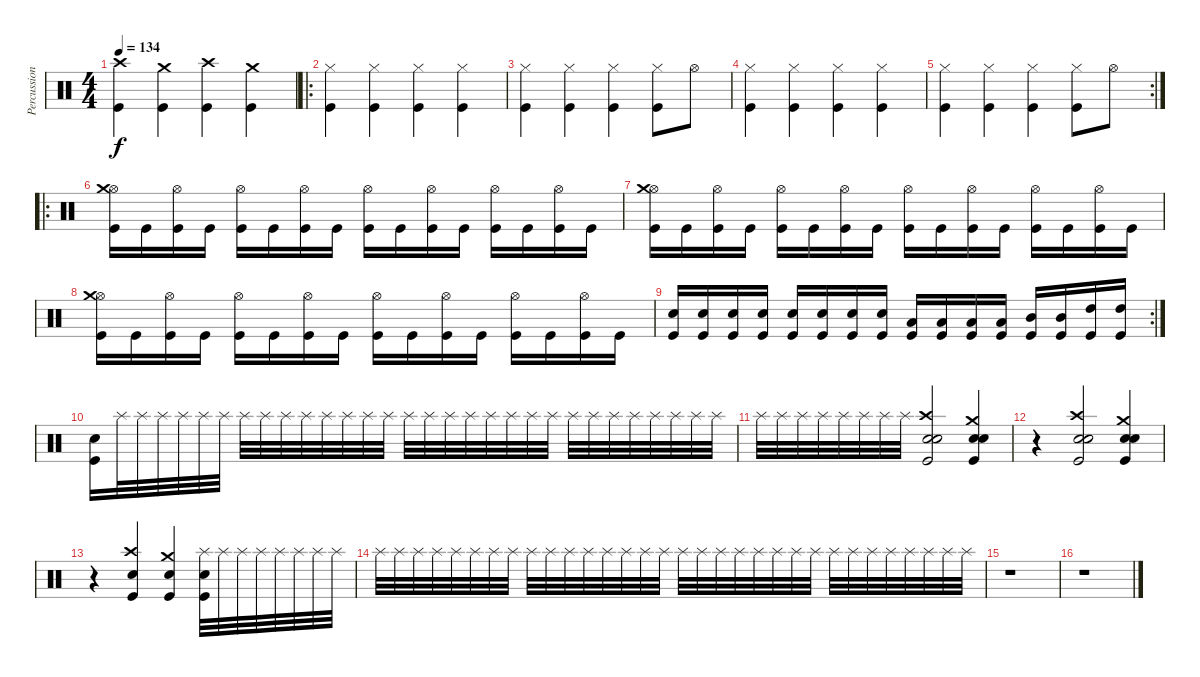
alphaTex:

\track ("Percussion" "Percussion") {instrument percussion}
\staff {score}
\articulation defaults
\ts (4 4)
\tempo 134
\clef neutral
\ks c
("Kick (hit)" "Crash high (hit)").4{dy f} ("Kick (hit)" "Crash medium (hit)").4 ("Kick (hit)" "Crash high (hit)").4 ("Kick (hit)" "Crash medium (hit)").4 |
\ro
("Kick (hit)" "Hi-Hat (closed)").4 ("Kick (hit)" "Hi-Hat (closed)").4 ("Kick (hit)" "Hi-Hat (closed)").4 ("Kick (hit)" "Hi-Hat (closed)").4 |
("Kick (hit)" "Hi-Hat (closed)").4 ("Kick (hit)" "Hi-Hat (closed)").4 ("Kick (hit)" "Hi-Hat (closed)").4 ("Kick (hit)" "Hi-Hat (closed)").8 "Hi-Hat (open)".8 |
("Kick (hit)" "Hi-Hat (closed)").4 ("Kick (hit)" "Hi-Hat (closed)").4 ("Kick (hit)" "Hi-Hat (closed)").4 ("Kick (hit)" "Hi-Hat (closed)").4 |
\rc 2
("Kick (hit)" "Hi-Hat (closed)").4 ("Kick (hit)" "Hi-Hat (closed)").4 ("Kick (hit)" "Hi-Hat (closed)").4 ("Kick (hit)" "Hi-Hat (closed)").8 "Hi-Hat (open)".8 |
\ro
("Kick (hit)" "Hi-Hat (open)" "Crash medium (hit)").16 "Kick (hit)".16 ("Kick (hit)" "Hi-Hat (open)").16 "Kick (hit)".16 ("Kick (hit)" "Hi-Hat (open)").16 "Kick (hit)".16 ("Kick (hit)" "Hi-Hat (open)").16 "Kick (hit)".16 ("Kick (hit)" "Hi-Hat (open)").16 "Kick (hit)".16 ("Kick (hit)" "Hi-Hat (open)").16 "Kick (hit)".16 ("Kick (hit)" "Hi-Hat (open)").16 "Kick (hit)".16 ("Kick (hit)" "Hi-Hat (open)").16 "Kick (hit)".16 |
("Kick (hit)" "Hi-Hat (open)" "Crash medium (hit)").16 "Kick (hit)".16 ("Kick (hit)" "Hi-Hat (open)").16 "Kick (hit)".16 ("Kick (hit)" "Hi-Hat (open)").16 "Kick (hit)".16 ("Kick (hit)" "Hi-Hat (open)").16 "Kick (hit)".16 ("Kick (hit)" "Hi-Hat (open)").16 "Kick (hit)".16 ("Kick (hit)" "Hi-Hat (open)").16 "Kick (hit)".16 ("Kick (hit)" "Hi-Hat (open)").16 "Kick (hit)".16 ("Kick (hit)" "Hi-Hat (open)").16 "Kick (hit)".16 |
("Kick (hit)" "Hi-Hat (open)" "Crash medium (hit)").16 "Kick (hit)".16 ("Kick (hit)" "Hi-Hat (open)").16 "Kick (hit)".16 ("Kick (hit)" "Hi-Hat (open)").16 "Kick (hit)".16 ("Kick (hit)" "Hi-Hat (open)").16 "Kick (hit)".16 ("Kick (hit)" "Hi-Hat (open)").16 "Kick (hit)".16 ("Kick (hit)" "Hi-Hat (open)").16 "Kick (hit)".16 ("Kick (hit)" "Hi-Hat (open)").16 "Kick (hit)".16 ("Kick (hit)" "Hi-Hat (open)").16 "Kick (hit)".16 |
\rc 2
("Kick (hit)" "Snare (hit) 2").16 ("Kick (hit)" "Snare (hit) 2").16 ("Kick (hit)" "Snare (hit) 2").16 ("Kick (hit)" "Snare (hit) 2").16 ("Kick (hit)" "Snare (hit) 2").16 ("Kick (hit)" "Snare (hit) 2").16 ("Kick (hit)" "Snare (hit) 2").16 ("Kick (hit)" "Snare (hit) 2").16 ("Kick (hit)" "Low Tom (hit)").16 ("Kick (hit)" "Low Tom (hit)").16 ("Kick (hit)" "Low Tom (hit)").16 ("Kick (hit)" "Low Tom (hit)").16 ("Kick (hit)" "Mid Tom (hit)").16 ("Kick (hit)" "Mid Tom (hit)").16 ("Kick (hit)" "High Tom (hit)").16 ("Kick (hit)" "High Tom (hit)").16 |
("Kick (hit)" "Snare (hit) 2").16 "Splash (hit)".32 "Splash (hit)".32 "Splash (hit)".32 "Splash (hit)".32 "Splash (hit)".32 "Splash (hit)".32 "Splash (hit)".32 "Splash (hit)".32 "Splash (hit)".32 "Splash (hit)".32 "Splash (hit)".32 "Splash (hit)".32 "Splash (hit)".32 "Splash (hit)".32 "Splash (hit)".32 "Splash (hit)".32 "Splash (hit)".32 "Splash (hit)".32 "Splash (hit)".32 "Splash (hit)".32 "Splash (hit)".32 "Splash (hit)".32 "Splash (hit)".32 "Splash (hit)".32 "Splash (hit)".32 "Splash (hit)".32 "Splash (hit)".32 "Splash (hit)".32 "Splash (hit)".32 "Splash (hit)".32 |
"Splash (hit)".32 "Splash (hit)".32 "Splash (hit)".32 "Splash (hit)".32 "Splash (hit)".32 "Splash (hit)".32 "Splash (hit)".32 "Splash (hit)".32 ("Kick (hit)" "Snare (hit) 2" "Crash high (hit)" "Snare (hit) 2").2 ("Kick (hit)" "Snare (hit) 2" "Crash medium (hit)" "Snare (hit) 2").4 |
r.4 ("Kick (hit)" "Snare (hit) 2" "Crash high (hit)" "Snare (hit) 2").2 ("Kick (hit)" "Snare (hit) 2" "Crash medium (hit)" "Snare (hit) 2").4 |
r.4 ("Kick (hit)" "Snare (hit) 2" "Crash high (hit)").4 ("Snare (hit) 2" "Kick (hit)" "Crash medium (hit)").4 ("Kick (hit)" "Snare (hit) 2" "Splash (hit)").32 "Splash (hit)".32 "Splash (hit)".32 "Splash (hit)".32 "Splash (hit)".32 "Splash (hit)".32 "Splash (hit)".32 "Splash (hit)".32 |
"Splash (hit)".32 "Splash (hit)".32 "Splash (hit)".32 "Splash (hit)".32 "Splash (hit)".32 "Splash (hit)".32 "Splash (hit)".32 "Splash (hit)".32 "Splash (hit)".32 "Splash (hit)".32 "Splash (hit)".32 "Splash (hit)".32 "Splash (hit)".32 "Splash (hit)".32 "Splash (hit)".32 "Splash (hit)".32 "Splash (hit)".32 "Splash (hit)".32 "Splash (hit)".32 "Splash (hit)".32 "Splash (hit)".32 "Splash (hit)".32 "Splash (hit)".32 "Splash (hit)".32 "Splash (hit)".32 "Splash (hit)".32 "Splash (hit)".32 "Splash (hit)".32 "Splash (hit)".32 "Splash (hit)".32 "Splash (hit)".32 "Splash (hit)".32 |
r.1 |
r.1
